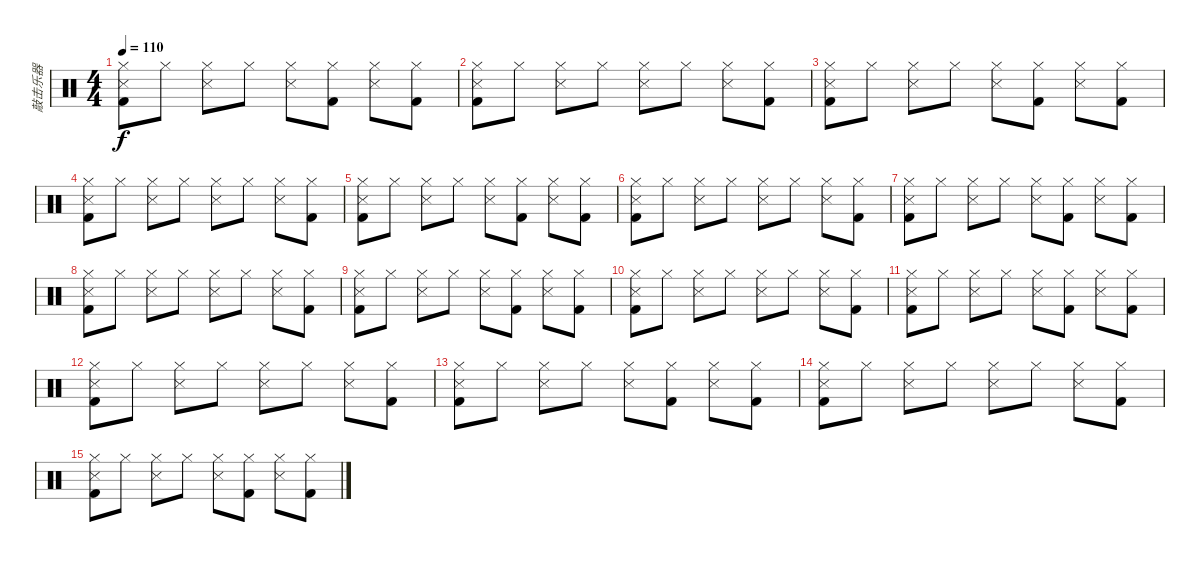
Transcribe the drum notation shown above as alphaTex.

\track ("敲击乐器" "敲击乐器") {instrument percussion}
\staff {score}
\articulation defaults
\ts (4 4)
\tempo 110
\clef neutral
\ks c
("Hi-Hat (closed)" "Metronome (hit)" "Kick (hit) 2").8{dy f} "Hi-Hat (closed)".8 ("Hi-Hat (closed)" "Metronome (hit)").8 "Hi-Hat (closed)".8 ("Hi-Hat (closed)" "Metronome (hit)").8 ("Hi-Hat (closed)" "Kick (hit) 2").8 ("Hi-Hat (closed)" "Metronome (hit)").8 ("Hi-Hat (closed)" "Kick (hit) 2").8 |
("Hi-Hat (closed)" "Metronome (hit)" "Kick (hit) 2").8{volume 13} "Hi-Hat (closed)".8 ("Hi-Hat (closed)" "Metronome (hit)").8 "Hi-Hat (closed)".8 ("Hi-Hat (closed)" "Metronome (hit)").8 "Hi-Hat (closed)".8 ("Hi-Hat (closed)" "Metronome (hit)").8 ("Hi-Hat (closed)" "Kick (hit) 2").8 |
("Hi-Hat (closed)" "Metronome (hit)" "Kick (hit) 2").8{volume 13} "Hi-Hat (closed)".8 ("Hi-Hat (closed)" "Metronome (hit)").8 "Hi-Hat (closed)".8 ("Hi-Hat (closed)" "Metronome (hit)").8 ("Hi-Hat (closed)" "Kick (hit) 2").8 ("Hi-Hat (closed)" "Metronome (hit)").8 ("Hi-Hat (closed)" "Kick (hit) 2").8 |
("Hi-Hat (closed)" "Metronome (hit)" "Kick (hit) 2").8{volume 12} "Hi-Hat (closed)".8 ("Hi-Hat (closed)" "Metronome (hit)").8 "Hi-Hat (closed)".8 ("Hi-Hat (closed)" "Metronome (hit)").8 "Hi-Hat (closed)".8 ("Hi-Hat (closed)" "Metronome (hit)").8 ("Hi-Hat (closed)" "Kick (hit) 2").8 |
("Hi-Hat (closed)" "Metronome (hit)" "Kick (hit) 2").8{volume 11} "Hi-Hat (closed)".8 ("Hi-Hat (closed)" "Metronome (hit)").8 "Hi-Hat (closed)".8 ("Hi-Hat (closed)" "Metronome (hit)").8 ("Hi-Hat (closed)" "Kick (hit) 2").8 ("Hi-Hat (closed)" "Metronome (hit)").8 ("Hi-Hat (closed)" "Kick (hit) 2").8 |
("Hi-Hat (closed)" "Metronome (hit)" "Kick (hit) 2").8{volume 11} "Hi-Hat (closed)".8 ("Hi-Hat (closed)" "Metronome (hit)").8 "Hi-Hat (closed)".8 ("Hi-Hat (closed)" "Metronome (hit)").8 "Hi-Hat (closed)".8 ("Hi-Hat (closed)" "Metronome (hit)").8 ("Hi-Hat (closed)" "Kick (hit) 2").8 |
("Hi-Hat (closed)" "Metronome (hit)" "Kick (hit) 2").8{volume 11} "Hi-Hat (closed)".8 ("Hi-Hat (closed)" "Metronome (hit)").8 "Hi-Hat (closed)".8 ("Hi-Hat (closed)" "Metronome (hit)").8 ("Hi-Hat (closed)" "Kick (hit) 2").8 ("Hi-Hat (closed)" "Metronome (hit)").8 ("Hi-Hat (closed)" "Kick (hit) 2").8 |
("Hi-Hat (closed)" "Metronome (hit)" "Kick (hit) 2").8{volume 10} "Hi-Hat (closed)".8 ("Hi-Hat (closed)" "Metronome (hit)").8 "Hi-Hat (closed)".8 ("Hi-Hat (closed)" "Metronome (hit)").8 "Hi-Hat (closed)".8 ("Hi-Hat (closed)" "Metronome (hit)").8 ("Hi-Hat (closed)" "Kick (hit) 2").8 |
("Hi-Hat (closed)" "Metronome (hit)" "Kick (hit) 2").8{volume 9} "Hi-Hat (closed)".8 ("Hi-Hat (closed)" "Metronome (hit)").8 "Hi-Hat (closed)".8 ("Hi-Hat (closed)" "Metronome (hit)").8 ("Hi-Hat (closed)" "Kick (hit) 2").8 ("Hi-Hat (closed)" "Metronome (hit)").8 ("Hi-Hat (closed)" "Kick (hit) 2").8 |
("Hi-Hat (closed)" "Metronome (hit)" "Kick (hit) 2").8{volume 9} "Hi-Hat (closed)".8 ("Hi-Hat (closed)" "Metronome (hit)").8 "Hi-Hat (closed)".8 ("Hi-Hat (closed)" "Metronome (hit)").8 "Hi-Hat (closed)".8 ("Hi-Hat (closed)" "Metronome (hit)").8 ("Hi-Hat (closed)" "Kick (hit) 2").8 |
("Hi-Hat (closed)" "Metronome (hit)" "Kick (hit) 2").8{volume 8} "Hi-Hat (closed)".8 ("Hi-Hat (closed)" "Metronome (hit)").8 "Hi-Hat (closed)".8 ("Hi-Hat (closed)" "Metronome (hit)").8 ("Hi-Hat (closed)" "Kick (hit) 2").8 ("Hi-Hat (closed)" "Metronome (hit)").8 ("Hi-Hat (closed)" "Kick (hit) 2").8 |
("Hi-Hat (closed)" "Metronome (hit)" "Kick (hit) 2").8{volume 8} "Hi-Hat (closed)".8 ("Hi-Hat (closed)" "Metronome (hit)").8 "Hi-Hat (closed)".8 ("Hi-Hat (closed)" "Metronome (hit)").8 "Hi-Hat (closed)".8 ("Hi-Hat (closed)" "Metronome (hit)").8 ("Hi-Hat (closed)" "Kick (hit) 2").8 |
("Hi-Hat (closed)" "Metronome (hit)" "Kick (hit) 2").8{volume 7} "Hi-Hat (closed)".8 ("Hi-Hat (closed)" "Metronome (hit)").8 "Hi-Hat (closed)".8 ("Hi-Hat (closed)" "Metronome (hit)").8{volume 6} ("Hi-Hat (closed)" "Kick (hit) 2").8 ("Hi-Hat (closed)" "Metronome (hit)").8 ("Hi-Hat (closed)" "Kick (hit) 2").8 |
("Hi-Hat (closed)" "Metronome (hit)" "Kick (hit) 2").8{volume 6} "Hi-Hat (closed)".8 ("Hi-Hat (closed)" "Metronome (hit)").8 "Hi-Hat (closed)".8 ("Hi-Hat (closed)" "Metronome (hit)").8{volume 5} "Hi-Hat (closed)".8 ("Hi-Hat (closed)" "Metronome (hit)").8 ("Hi-Hat (closed)" "Kick (hit) 2").8 |
("Hi-Hat (closed)" "Metronome (hit)" "Kick (hit) 2").8{volume 4} "Hi-Hat (closed)".8 ("Hi-Hat (closed)" "Metronome (hit)").8 "Hi-Hat (closed)".8 ("Hi-Hat (closed)" "Metronome (hit)").8{volume 3} ("Hi-Hat (closed)" "Kick (hit) 2").8 ("Hi-Hat (closed)" "Metronome (hit)").8 ("Hi-Hat (closed)" "Kick (hit) 2").8
